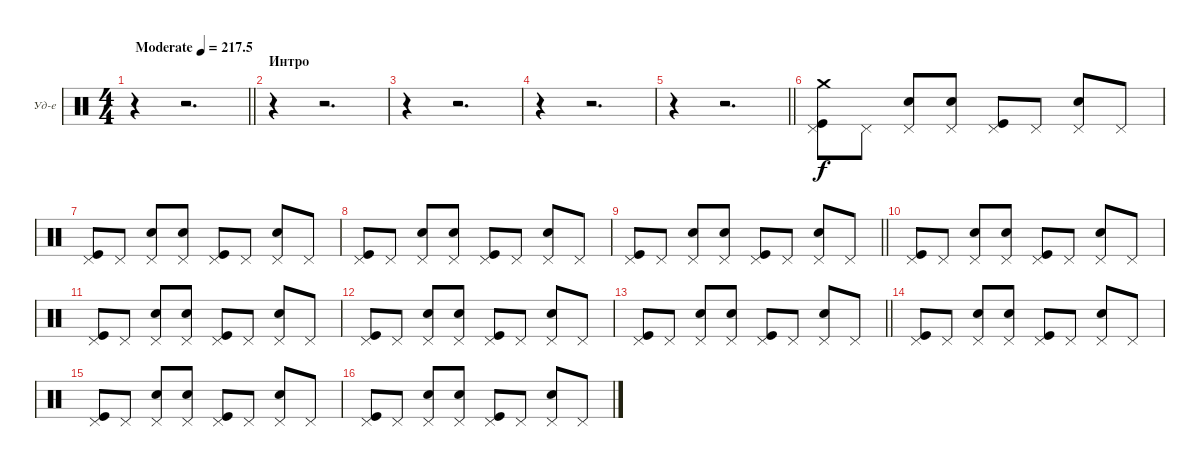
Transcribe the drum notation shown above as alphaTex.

\bracketExtendMode groupsimilarinstruments
\firstSystemTrackNameOrientation horizontal
\otherSystemsTrackNameOrientation horizontal
\track ("Ударные" "Уд-е") {instrument percussion}
\staff {score}
\articulation defaults
\ts (4 4)
\beaming (8 2 2 2 2)
\tempo (217.5 "Moderate")
\clef neutral
\barLineRight lightlight
\ks c
r.4{dy f} r.2{d} |
\section ("" "Интро")
r.4 r.2{d} |
r.4 r.2{d} |
r.4 r.2{d} |
\barLineRight lightlight
r.4 r.2{d} |
("Pedal Hi-Hat (hit)" "Kick (hit)" "Crash medium (hit)").8 "Pedal Hi-Hat (hit)".8 ("Pedal Hi-Hat (hit)" "Snare (hit) 2").8 ("Pedal Hi-Hat (hit)" "Snare (hit) 2").8 ("Pedal Hi-Hat (hit)" "Kick (hit)").8 "Pedal Hi-Hat (hit)".8 ("Pedal Hi-Hat (hit)" "Snare (hit) 2").8 "Pedal Hi-Hat (hit)".8 |
("Pedal Hi-Hat (hit)" "Kick (hit)").8 "Pedal Hi-Hat (hit)".8 ("Pedal Hi-Hat (hit)" "Snare (hit) 2").8 ("Pedal Hi-Hat (hit)" "Snare (hit) 2").8 ("Pedal Hi-Hat (hit)" "Kick (hit)").8 "Pedal Hi-Hat (hit)".8 ("Pedal Hi-Hat (hit)" "Snare (hit) 2").8 "Pedal Hi-Hat (hit)".8 |
("Pedal Hi-Hat (hit)" "Kick (hit)").8 "Pedal Hi-Hat (hit)".8 ("Pedal Hi-Hat (hit)" "Snare (hit) 2").8 ("Pedal Hi-Hat (hit)" "Snare (hit) 2").8 ("Pedal Hi-Hat (hit)" "Kick (hit)").8 "Pedal Hi-Hat (hit)".8 ("Pedal Hi-Hat (hit)" "Snare (hit) 2").8 "Pedal Hi-Hat (hit)".8 |
\barLineRight lightlight
("Pedal Hi-Hat (hit)" "Kick (hit)").8 "Pedal Hi-Hat (hit)".8 ("Pedal Hi-Hat (hit)" "Snare (hit) 2").8 ("Pedal Hi-Hat (hit)" "Snare (hit) 2").8 ("Pedal Hi-Hat (hit)" "Kick (hit)").8 "Pedal Hi-Hat (hit)".8 ("Pedal Hi-Hat (hit)" "Snare (hit) 2").8 "Pedal Hi-Hat (hit)".8 |
("Pedal Hi-Hat (hit)" "Kick (hit)").8 "Pedal Hi-Hat (hit)".8 ("Pedal Hi-Hat (hit)" "Snare (hit) 2").8 ("Pedal Hi-Hat (hit)" "Snare (hit) 2").8 ("Pedal Hi-Hat (hit)" "Kick (hit)").8 "Pedal Hi-Hat (hit)".8 ("Pedal Hi-Hat (hit)" "Snare (hit) 2").8 "Pedal Hi-Hat (hit)".8 |
("Pedal Hi-Hat (hit)" "Kick (hit)").8 "Pedal Hi-Hat (hit)".8 ("Pedal Hi-Hat (hit)" "Snare (hit) 2").8 ("Pedal Hi-Hat (hit)" "Snare (hit) 2").8 ("Pedal Hi-Hat (hit)" "Kick (hit)").8 "Pedal Hi-Hat (hit)".8 ("Pedal Hi-Hat (hit)" "Snare (hit) 2").8 "Pedal Hi-Hat (hit)".8 |
("Pedal Hi-Hat (hit)" "Kick (hit)").8 "Pedal Hi-Hat (hit)".8 ("Pedal Hi-Hat (hit)" "Snare (hit) 2").8 ("Pedal Hi-Hat (hit)" "Snare (hit) 2").8 ("Pedal Hi-Hat (hit)" "Kick (hit)").8 "Pedal Hi-Hat (hit)".8 ("Pedal Hi-Hat (hit)" "Snare (hit) 2").8 "Pedal Hi-Hat (hit)".8 |
\barLineRight lightlight
("Pedal Hi-Hat (hit)" "Kick (hit)").8 "Pedal Hi-Hat (hit)".8 ("Pedal Hi-Hat (hit)" "Snare (hit) 2").8 ("Pedal Hi-Hat (hit)" "Snare (hit) 2").8 ("Pedal Hi-Hat (hit)" "Kick (hit)").8 "Pedal Hi-Hat (hit)".8 ("Pedal Hi-Hat (hit)" "Snare (hit) 2").8 "Pedal Hi-Hat (hit)".8 |
("Pedal Hi-Hat (hit)" "Kick (hit)").8 "Pedal Hi-Hat (hit)".8 ("Pedal Hi-Hat (hit)" "Snare (hit) 2").8 ("Pedal Hi-Hat (hit)" "Snare (hit) 2").8 ("Pedal Hi-Hat (hit)" "Kick (hit)").8 "Pedal Hi-Hat (hit)".8 ("Pedal Hi-Hat (hit)" "Snare (hit) 2").8 "Pedal Hi-Hat (hit)".8 |
("Pedal Hi-Hat (hit)" "Kick (hit)").8 "Pedal Hi-Hat (hit)".8 ("Pedal Hi-Hat (hit)" "Snare (hit) 2").8 ("Pedal Hi-Hat (hit)" "Snare (hit) 2").8 ("Pedal Hi-Hat (hit)" "Kick (hit)").8 "Pedal Hi-Hat (hit)".8 ("Pedal Hi-Hat (hit)" "Snare (hit) 2").8 "Pedal Hi-Hat (hit)".8 |
("Pedal Hi-Hat (hit)" "Kick (hit)").8 "Pedal Hi-Hat (hit)".8 ("Pedal Hi-Hat (hit)" "Snare (hit) 2").8 ("Pedal Hi-Hat (hit)" "Snare (hit) 2").8 ("Pedal Hi-Hat (hit)" "Kick (hit)").8 "Pedal Hi-Hat (hit)".8 ("Pedal Hi-Hat (hit)" "Snare (hit) 2").8 "Pedal Hi-Hat (hit)".8
